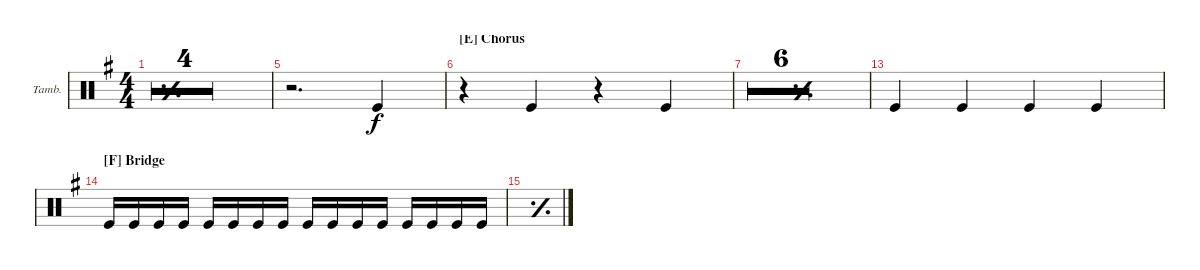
\defaultSystemsLayout 4
\bracketExtendMode groupsimilarinstruments
\firstSystemTrackNameOrientation horizontal
\otherSystemsTrackNameOrientation horizontal
\track ("Tambourine" "Tamb.") {multiBarRest instrument percussion}
\staff {score}
\articulation defaults
\ts (4 4)
\tempo 90
\clef neutral
\simile simple
\scale
0.193878
\ks g
|
\scale
0.277056 |
\scale
0.197514 |
\simile none
\scale
0.163603 r.1 |
\scale
0.361184 r.2{d} "Kick (hit)".4 |
\section ("E" "Chorus")
\scale
0.473846 r.4 "Kick (hit)".4 r.4 "Kick (hit)".4 |
\simile simple
\scale
0.162446 |
\scale
0.188312 |
\scale
0.175385 |
\scale
0.28 |
\scale
0.194041 |
\scale
0.163884 |
\simile none
\scale
0.362157 "Kick (hit)".4 "Kick (hit)".4 "Kick (hit)".4 "Kick (hit)".4 |
\section ("F" "Bridge")
\scale
0.558266 "Kick (hit)".16 "Kick (hit)".16 "Kick (hit)".16 "Kick (hit)".16 "Kick (hit)".16 "Kick (hit)".16 "Kick (hit)".16 "Kick (hit)".16 "Kick (hit)".16 "Kick (hit)".16 "Kick (hit)".16 "Kick (hit)".16 "Kick (hit)".16 "Kick (hit)".16 "Kick (hit)".16 "Kick (hit)".16 |
\simile simple
\scale
0.170154 |
\scale
0.145846
